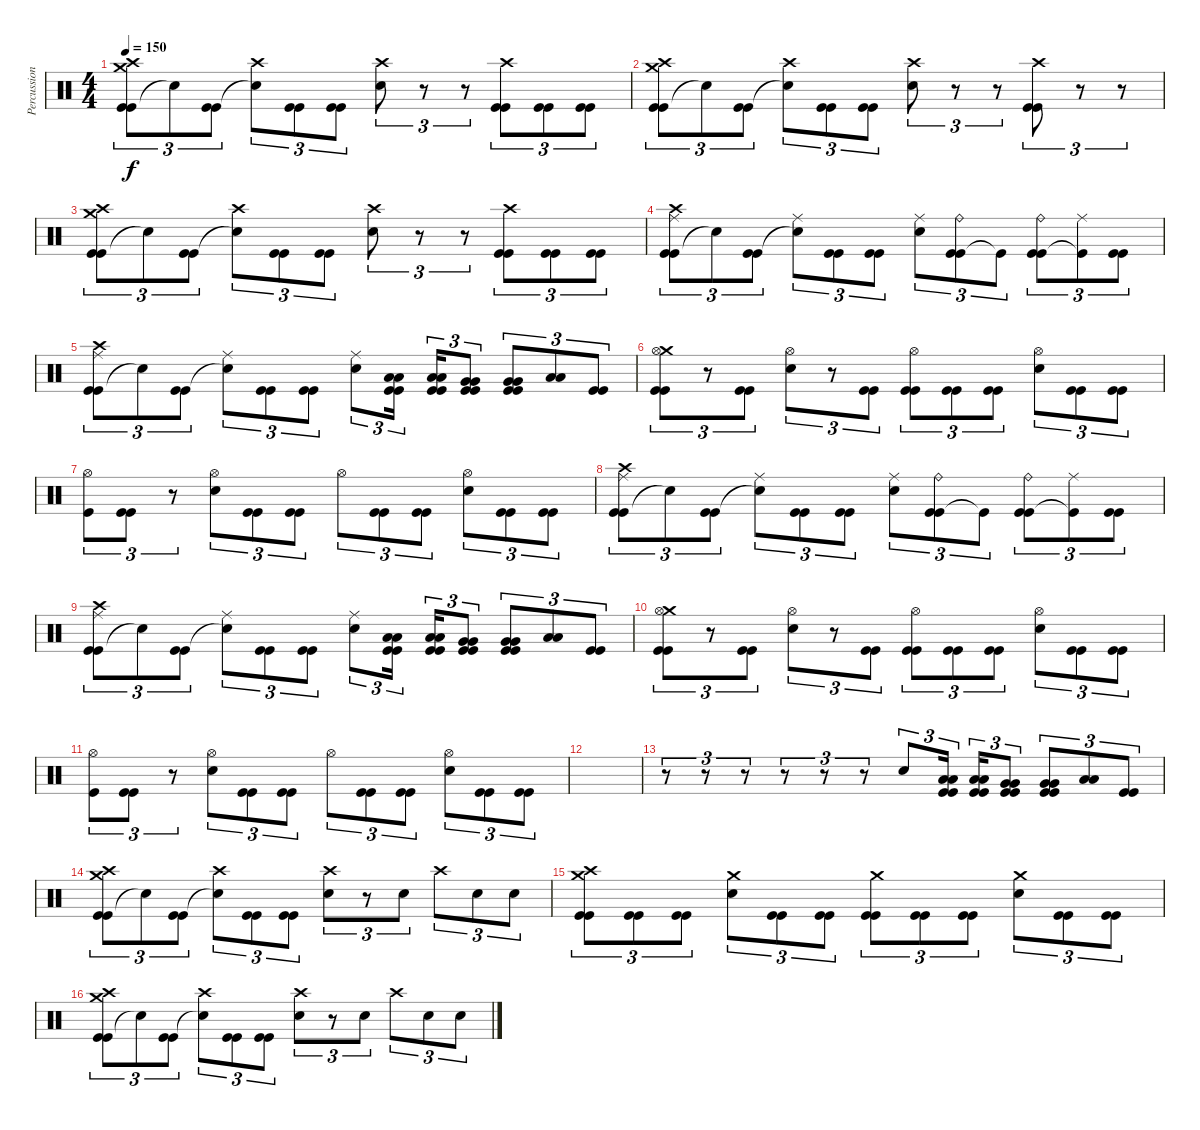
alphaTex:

\track ("Percussion" "Percussion") {instrument percussion}
\staff {score}
\articulation defaults
\ts (4 4)
\tempo 150
\clef neutral
\ks c
("Kick (hit)" "Crash medium (hit)" "Crash high (hit)" "Kick (hit)").8{tu (3 2) dy f} "Snare (hit)"{t}.8{tu (3 2)} ("Kick (hit)" "Kick (hit)").8{tu (3 2)} ("Crash high (hit)" "Snare (hit)"{t}).8{tu (3 2)} ("Kick (hit)" "Kick (hit)").8{tu (3 2)} ("Kick (hit)" "Kick (hit)").8{tu (3 2)} ("Crash high (hit)" "Snare (hit) 2").8{tu (3 2)} r.8{tu (3 2)} r.8{tu (3 2)} ("Crash high (hit)" "Kick (hit)" "Kick (hit)").8{tu (3 2)} ("Kick (hit)" "Kick (hit)").8{tu (3 2)} ("Kick (hit)" "Kick (hit)").8{tu (3 2)} |
("Kick (hit)" "Crash medium (hit)" "Crash high (hit)" "Kick (hit)").8{tu (3 2)} "Snare (hit)"{t}.8{tu (3 2)} ("Kick (hit)" "Kick (hit)").8{tu (3 2)} ("Crash high (hit)" "Snare (hit)"{t}).8{tu (3 2)} ("Kick (hit)" "Kick (hit)").8{tu (3 2)} ("Kick (hit)" "Kick (hit)").8{tu (3 2)} ("Crash high (hit)" "Snare (hit) 2").8{tu (3 2)} r.8{tu (3 2)} r.8{tu (3 2)} ("Crash high (hit)" "Kick (hit)" "Kick (hit)").8{tu (3 2)} r.8{tu (3 2)} r.8{tu (3 2)} |
("Kick (hit)" "Crash medium (hit)" "Crash high (hit)" "Kick (hit)").8{tu (3 2)} "Snare (hit)"{t}.8{tu (3 2)} ("Kick (hit)" "Kick (hit)").8{tu (3 2)} ("Crash high (hit)" "Snare (hit)"{t}).8{tu (3 2)} ("Kick (hit)" "Kick (hit)").8{tu (3 2)} ("Kick (hit)" "Kick (hit)").8{tu (3 2)} ("Crash high (hit)" "Snare (hit) 2").8{tu (3 2)} r.8{tu (3 2)} r.8{tu (3 2)} ("Crash high (hit)" "Kick (hit)" "Kick (hit)").8{tu (3 2)} ("Kick (hit)" "Kick (hit)").8{tu (3 2)} ("Kick (hit)" "Kick (hit)").8{tu (3 2)} |
("Kick (hit)" "Crash high (hit)" "Kick (hit)" "Ride (middle)").8{tu (3 2)} "Snare (hit)"{t}.8{tu (3 2)} ("Kick (hit)" "Kick (hit)").8{tu (3 2)} ("Snare (hit)"{t} "Ride (middle)").8{tu (3 2)} ("Kick (hit)" "Kick (hit)").8{tu (3 2)} ("Kick (hit)" "Kick (hit)").8{tu (3 2)} ("Snare (hit) 2" "Ride (middle)").8{tu (3 2)} ("Kick (hit)" "Kick (hit)" "Ride (bell)").8{tu (3 2)} "Kick (hit)"{t}.8{tu (3 2)} ("Kick (hit)" "Kick (hit)" "Ride (bell)").8{tu (3 2)} ("Kick (hit)"{t} "Ride (middle)").8{tu (3 2)} ("Kick (hit)" "Kick (hit)").8{tu (3 2)} |
("Kick (hit)" "Crash high (hit)" "Kick (hit)" "Ride (middle)").8{tu (3 2)} "Snare (hit)"{t}.8{tu (3 2)} ("Kick (hit)" "Kick (hit)").8{tu (3 2)} ("Snare (hit)"{t} "Ride (middle)").8{tu (3 2)} ("Kick (hit)" "Kick (hit)").8{tu (3 2)} ("Kick (hit)" "Kick (hit)").8{tu (3 2)} ("Snare (hit) 2" "Ride (middle)").8{tu (3 2)} ("Kick (hit)" "Kick (hit)" "Low Tom (hit)" "Low Tom (hit)").16{tu (3 2) beam splitsecondary} ("Kick (hit)" "Kick (hit)" "Low Tom (hit)" "Low Tom (hit)").16{tu (3 2)} ("Kick (hit)" "Kick (hit)" "Very Low Tom (hit)" "Very Low Tom (hit)").8{tu (3 2)} ("Kick (hit)" "Kick (hit)" "Very Low Tom (hit)" "Very Low Tom (hit)").8{tu (3 2)} ("Low Floor Tom (hit)" "Low Floor Tom (hit)").8{tu (3 2)} ("Kick (hit)" "Kick (hit)").8{tu (3 2)} |
("Crash medium (hit)" "Hi-Hat (open)" "Kick (hit)" "Kick (hit)").8{tu (3 2)} r.8{tu (3 2)} ("Kick (hit)" "Kick (hit)").8{tu (3 2)} ("Hi-Hat (open)" "Snare (hit) 2").8{tu (3 2)} r.8{tu (3 2)} ("Kick (hit)" "Kick (hit)").8{tu (3 2)} ("Hi-Hat (open)" "Kick (hit)" "Kick (hit)").8{tu (3 2)} ("Kick (hit)" "Kick (hit)").8{tu (3 2)} ("Kick (hit)" "Kick (hit)").8{tu (3 2)} ("Hi-Hat (open)" "Snare (hit) 2").8{tu (3 2)} ("Kick (hit)" "Kick (hit)").8{tu (3 2)} ("Kick (hit)" "Kick (hit)").8{tu (3 2)} |
("Kick (hit)" "Hi-Hat (open)").8{tu (3 2)} ("Kick (hit)" "Kick (hit)").8{tu (3 2)} r.8{tu (3 2)} ("Hi-Hat (open)" "Snare (hit) 2").8{tu (3 2)} ("Kick (hit)" "Kick (hit)").8{tu (3 2)} ("Kick (hit)" "Kick (hit)").8{tu (3 2)} "Hi-Hat (open)".8{tu (3 2)} ("Kick (hit)" "Kick (hit)").8{tu (3 2)} ("Kick (hit)" "Kick (hit)").8{tu (3 2)} ("Hi-Hat (open)" "Snare (hit) 2").8{tu (3 2)} ("Kick (hit)" "Kick (hit)").8{tu (3 2)} ("Kick (hit)" "Kick (hit)").8{tu (3 2)} |
("Kick (hit)" "Crash high (hit)" "Kick (hit)" "Ride (middle)").8{tu (3 2)} "Snare (hit)"{t}.8{tu (3 2)} ("Kick (hit)" "Kick (hit)").8{tu (3 2)} ("Snare (hit)"{t} "Ride (middle)").8{tu (3 2)} ("Kick (hit)" "Kick (hit)").8{tu (3 2)} ("Kick (hit)" "Kick (hit)").8{tu (3 2)} ("Snare (hit) 2" "Ride (middle)").8{tu (3 2)} ("Kick (hit)" "Kick (hit)" "Ride (bell)").8{tu (3 2)} "Kick (hit)"{t}.8{tu (3 2)} ("Kick (hit)" "Kick (hit)" "Ride (bell)").8{tu (3 2)} ("Kick (hit)"{t} "Ride (middle)").8{tu (3 2)} ("Kick (hit)" "Kick (hit)").8{tu (3 2)} |
("Kick (hit)" "Crash high (hit)" "Kick (hit)" "Ride (middle)").8{tu (3 2)} "Snare (hit)"{t}.8{tu (3 2)} ("Kick (hit)" "Kick (hit)").8{tu (3 2)} ("Snare (hit)"{t} "Ride (middle)").8{tu (3 2)} ("Kick (hit)" "Kick (hit)").8{tu (3 2)} ("Kick (hit)" "Kick (hit)").8{tu (3 2)} ("Snare (hit) 2" "Ride (middle)").8{tu (3 2)} ("Kick (hit)" "Kick (hit)" "Low Tom (hit)" "Low Tom (hit)").16{tu (3 2) beam splitsecondary} ("Kick (hit)" "Kick (hit)" "Low Tom (hit)" "Low Tom (hit)").16{tu (3 2)} ("Kick (hit)" "Kick (hit)" "Very Low Tom (hit)" "Very Low Tom (hit)").8{tu (3 2)} ("Kick (hit)" "Kick (hit)" "Very Low Tom (hit)" "Very Low Tom (hit)").8{tu (3 2)} ("Low Floor Tom (hit)" "Low Floor Tom (hit)").8{tu (3 2)} ("Kick (hit)" "Kick (hit)").8{tu (3 2)} |
("Crash medium (hit)" "Hi-Hat (open)" "Kick (hit)" "Kick (hit)").8{tu (3 2)} r.8{tu (3 2)} ("Kick (hit)" "Kick (hit)").8{tu (3 2)} ("Hi-Hat (open)" "Snare (hit) 2").8{tu (3 2)} r.8{tu (3 2)} ("Kick (hit)" "Kick (hit)").8{tu (3 2)} ("Hi-Hat (open)" "Kick (hit)" "Kick (hit)").8{tu (3 2)} ("Kick (hit)" "Kick (hit)").8{tu (3 2)} ("Kick (hit)" "Kick (hit)").8{tu (3 2)} ("Hi-Hat (open)" "Snare (hit) 2").8{tu (3 2)} ("Kick (hit)" "Kick (hit)").8{tu (3 2)} ("Kick (hit)" "Kick (hit)").8{tu (3 2)} |
("Kick (hit)" "Hi-Hat (open)").8{tu (3 2)} ("Kick (hit)" "Kick (hit)").8{tu (3 2)} r.8{tu (3 2)} ("Hi-Hat (open)" "Snare (hit) 2").8{tu (3 2)} ("Kick (hit)" "Kick (hit)").8{tu (3 2)} ("Kick (hit)" "Kick (hit)").8{tu (3 2)} "Hi-Hat (open)".8{tu (3 2)} ("Kick (hit)" "Kick (hit)").8{tu (3 2)} ("Kick (hit)" "Kick (hit)").8{tu (3 2)} ("Hi-Hat (open)" "Snare (hit) 2").8{tu (3 2)} ("Kick (hit)" "Kick (hit)").8{tu (3 2)} ("Kick (hit)" "Kick (hit)").8{tu (3 2)} |
|
r.8{tu (3 2)} r.8{tu (3 2)} r.8{tu (3 2)} r.8{tu (3 2)} r.8{tu (3 2)} r.8{tu (3 2)} "Snare (hit) 2".8{tu (3 2)} ("Kick (hit)" "Kick (hit)" "Low Tom (hit)" "Low Tom (hit)").16{tu (3 2) beam splitsecondary} ("Kick (hit)" "Kick (hit)" "Low Tom (hit)" "Low Tom (hit)").16{tu (3 2)} ("Kick (hit)" "Kick (hit)" "Very Low Tom (hit)" "Very Low Tom (hit)").8{tu (3 2)} ("Kick (hit)" "Kick (hit)" "Very Low Tom (hit)" "Very Low Tom (hit)").8{tu (3 2)} ("Low Floor Tom (hit)" "Low Floor Tom (hit)").8{tu (3 2)} ("Kick (hit)" "Kick (hit)").8{tu (3 2)} |
("Kick (hit)" "Crash medium (hit)" "Crash high (hit)" "Kick (hit)").8{tu (3 2)} "Snare (hit)"{t}.8{tu (3 2)} ("Kick (hit)" "Kick (hit)").8{tu (3 2)} ("Crash high (hit)" "Snare (hit)"{t}).8{tu (3 2)} ("Kick (hit)" "Kick (hit)").8{tu (3 2)} ("Kick (hit)" "Kick (hit)").8{tu (3 2)} ("Crash high (hit)" "Snare (hit) 2").8{tu (3 2)} r.8{tu (3 2)} "Snare (hit) 2".8{tu (3 2)} "Crash high (hit)".8{tu (3 2)} "Snare (hit) 2".8{tu (3 2)} "Snare (hit) 2".8{tu (3 2)} |
("Crash medium (hit)" "Crash high (hit)" "Kick (hit)" "Kick (hit)").8{tu (3 2)} ("Kick (hit)" "Kick (hit)").8{tu (3 2)} ("Kick (hit)" "Kick (hit)").8{tu (3 2)} ("Crash medium (hit)" "Snare (hit) 2").8{tu (3 2)} ("Kick (hit)" "Kick (hit)").8{tu (3 2)} ("Kick (hit)" "Kick (hit)").8{tu (3 2)} ("Crash medium (hit)" "Kick (hit)" "Kick (hit)").8{tu (3 2)} ("Kick (hit)" "Kick (hit)").8{tu (3 2)} ("Kick (hit)" "Kick (hit)").8{tu (3 2)} ("Crash medium (hit)" "Snare (hit) 2").8{tu (3 2)} ("Kick (hit)" "Kick (hit)").8{tu (3 2)} ("Kick (hit)" "Kick (hit)").8{tu (3 2)} |
("Kick (hit)" "Crash medium (hit)" "Crash high (hit)" "Kick (hit)").8{tu (3 2)} "Snare (hit)"{t}.8{tu (3 2)} ("Kick (hit)" "Kick (hit)").8{tu (3 2)} ("Crash high (hit)" "Snare (hit)"{t}).8{tu (3 2)} ("Kick (hit)" "Kick (hit)").8{tu (3 2)} ("Kick (hit)" "Kick (hit)").8{tu (3 2)} ("Crash high (hit)" "Snare (hit) 2").8{tu (3 2)} r.8{tu (3 2)} "Snare (hit) 2".8{tu (3 2)} "Crash high (hit)".8{tu (3 2)} "Snare (hit) 2".8{tu (3 2)} "Snare (hit) 2".8{tu (3 2)}
